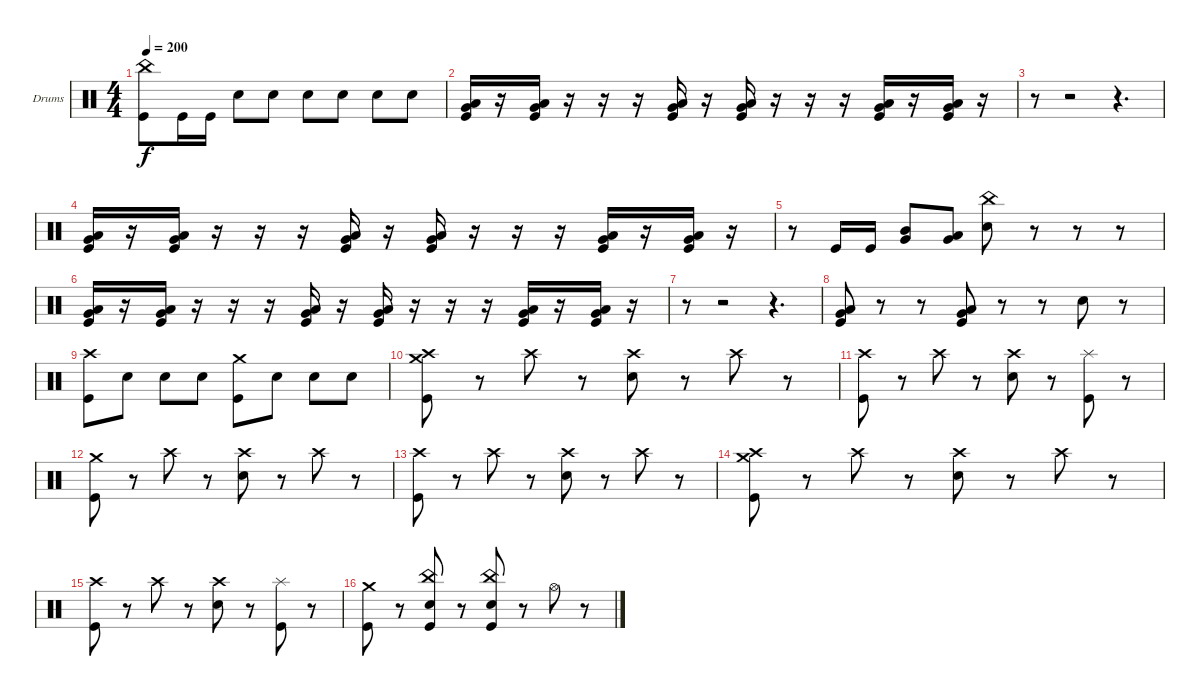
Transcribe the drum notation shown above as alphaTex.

\defaultSystemsLayout 4
\bracketExtendMode groupsimilarinstruments
\firstSystemTrackNameOrientation horizontal
\otherSystemsTrackNameOrientation horizontal
\track ("Drumkit" "Drums") {instrument percussion}
\staff {score}
\articulation defaults
\ts (4 4)
\tempo 200
\clef neutral
\ks c
("Kick (hit)" "China (hit)").8{dy f} "Kick (hit)".16 "Kick (hit)".16 "Snare (hit) 2".8 "Snare (hit) 2".8 "Snare (hit) 2".8 "Snare (hit) 2".8 "Snare (hit) 2".8 "Snare (hit) 2".8 |
("Kick (hit)" "Very Low Tom (hit)" "Low Tom (hit)").16 r.16 ("Kick (hit)" "Very Low Tom (hit)" "Low Tom (hit)").16 r.16 r.16 r.16 ("Kick (hit)" "Very Low Tom (hit)" "Low Tom (hit)").16 r.16 ("Kick (hit)" "Very Low Tom (hit)" "Low Tom (hit)").16 r.16 r.16 r.16 ("Kick (hit)" "Very Low Tom (hit)" "Low Tom (hit)").16 r.16 ("Kick (hit)" "Very Low Tom (hit)" "Low Tom (hit)").16 r.16 |
r.8 r.2 r.4{d} |
("Kick (hit)" "Very Low Tom (hit)" "Low Tom (hit)").16 r.16 ("Kick (hit)" "Very Low Tom (hit)" "Low Tom (hit)").16 r.16 r.16 r.16 ("Kick (hit)" "Very Low Tom (hit)" "Low Tom (hit)").16 r.16 ("Kick (hit)" "Very Low Tom (hit)" "Low Tom (hit)").16 r.16 r.16 r.16 ("Kick (hit)" "Very Low Tom (hit)" "Low Tom (hit)").16 r.16 ("Kick (hit)" "Very Low Tom (hit)" "Low Tom (hit)").16 r.16 |
r.8 "Kick (hit)".16 "Kick (hit)".16 ("Very Low Tom (hit)" "Mid Tom (hit)").8 ("Very Low Tom (hit)" "Low Tom (hit)").8 ("Snare (hit) 2" "China (hit)").8 r.8 r.8 r.8 |
("Kick (hit)" "Very Low Tom (hit)" "Low Tom (hit)").16 r.16 ("Kick (hit)" "Very Low Tom (hit)" "Low Tom (hit)").16 r.16 r.16 r.16 ("Kick (hit)" "Very Low Tom (hit)" "Low Tom (hit)").16 r.16 ("Kick (hit)" "Very Low Tom (hit)" "Low Tom (hit)").16 r.16 r.16 r.16 ("Kick (hit)" "Very Low Tom (hit)" "Low Tom (hit)").16 r.16 ("Kick (hit)" "Very Low Tom (hit)" "Low Tom (hit)").16 r.16 |
r.8 r.2 r.4{d} |
("Kick (hit)" "Very Low Tom (hit)" "Low Tom (hit)").8 r.8 r.8 ("Kick (hit)" "Very Low Tom (hit)" "Low Tom (hit)").8 r.8 r.8 "Snare (hit) 2".8 r.8 |
("Kick (hit)" "Crash high (hit)").8 "Snare (hit) 2".8 "Snare (hit) 2".8 "Snare (hit) 2".8 ("Kick (hit)" "Crash medium (hit)").8 "Snare (hit) 2".8 "Snare (hit) 2".8 "Snare (hit) 2".8 |
("Kick (hit)" "Crash medium (hit)" "Crash high (hit)").8 r.8 "Crash high (hit)".8 r.8 ("Snare (hit) 2" "Crash high (hit)").8 r.8 "Crash high (hit)".8 r.8 |
("Kick (hit)" "Crash high (hit)").8 r.8 "Crash high (hit)".8 r.8 ("Snare (hit) 2" "Crash high (hit)").8 r.8 ("Kick (hit)" "Splash (hit)").8 r.8 |
("Kick (hit)" "Crash medium (hit)").8 r.8 "Crash high (hit)".8 r.8 ("Snare (hit) 2" "Crash high (hit)").8 r.8 "Crash high (hit)".8 r.8 |
("Kick (hit)" "Crash high (hit)").8 r.8 "Crash high (hit)".8 r.8 ("Snare (hit) 2" "Crash high (hit)").8 r.8 "Crash high (hit)".8 r.8 |
("Kick (hit)" "Crash medium (hit)" "Crash high (hit)").8 r.8 "Crash high (hit)".8 r.8 ("Snare (hit) 2" "Crash high (hit)").8 r.8 "Crash high (hit)".8 r.8 |
("Kick (hit)" "Crash high (hit)").8 r.8 "Crash high (hit)".8 r.8 ("Snare (hit) 2" "Crash high (hit)").8 r.8 ("Kick (hit)" "Splash (hit)").8 r.8 |
("Kick (hit)" "Crash medium (hit)").8 r.8 ("Kick (hit)" "Snare (hit) 2" "China (hit)").8 r.8 ("Kick (hit)" "Snare (hit) 2" "China (hit)").8 r.8 "Hi-Hat (open)".8 r.8
